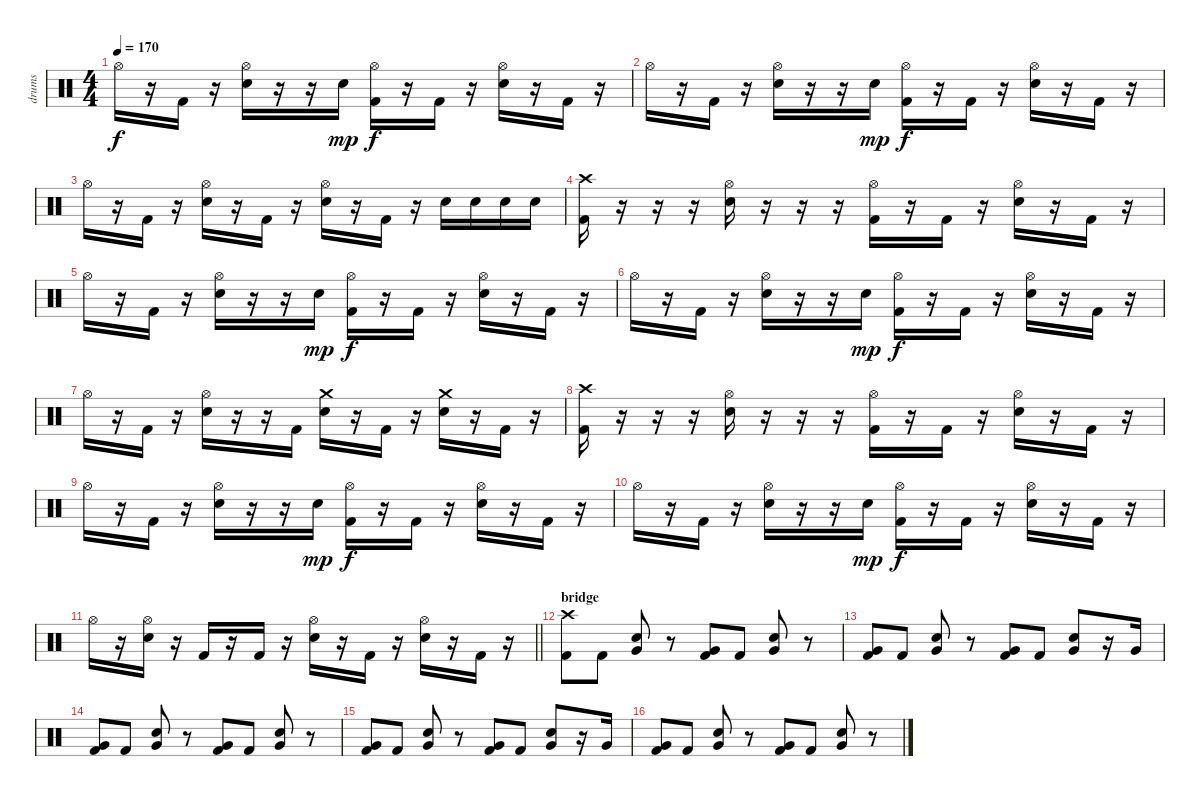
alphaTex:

\track ("drums" "drums") {instrument percussion}
\staff {score}
\articulation defaults
\ts (4 4)
\tempo 170
\clef neutral
\ks c "Hi-Hat (open)".16{dy f}
r.16 "Kick (hit) 2".16 r.16 ("Hi-Hat (open)" "Snare (hit) 2").16 r.16 r.16 "Snare (hit) 2".16{dy mp} ("Hi-Hat (open)" "Kick (hit) 2").16{dy f} r.16 "Kick (hit) 2".16 r.16 ("Hi-Hat (open)" "Snare (hit) 2").16 r.16 "Kick (hit) 2".16 r.16 |
"Hi-Hat (open)".16 r.16 "Kick (hit) 2".16 r.16 ("Hi-Hat (open)" "Snare (hit) 2").16 r.16 r.16 "Snare (hit) 2".16{dy mp} ("Hi-Hat (open)" "Kick (hit) 2").16{dy f} r.16 "Kick (hit) 2".16 r.16 ("Hi-Hat (open)" "Snare (hit) 2").16 r.16 "Kick (hit) 2".16 r.16 |
"Hi-Hat (open)".16 r.16 "Kick (hit) 2".16 r.16 ("Hi-Hat (open)" "Snare (hit) 2").16 r.16 "Kick (hit) 2".16 r.16 ("Hi-Hat (open)" "Snare (hit) 2").16 r.16 "Kick (hit) 2".16 r.16 "Snare (hit) 2".16 "Snare (hit) 2".16 "Snare (hit) 2".16 "Snare (hit) 2".16 |
("Crash high (hit)" "Kick (hit) 2").16 r.16 r.16 r.16 ("Hi-Hat (open)" "Snare (hit) 2").16 r.16 r.16 r.16 ("Hi-Hat (open)" "Kick (hit) 2").16 r.16 "Kick (hit) 2".16 r.16 ("Hi-Hat (open)" "Snare (hit) 2").16 r.16 "Kick (hit) 2".16 r.16 |
"Hi-Hat (open)".16 r.16 "Kick (hit) 2".16 r.16 ("Hi-Hat (open)" "Snare (hit) 2").16 r.16 r.16 "Snare (hit) 2".16{dy mp} ("Hi-Hat (open)" "Kick (hit) 2").16{dy f} r.16 "Kick (hit) 2".16 r.16 ("Hi-Hat (open)" "Snare (hit) 2").16 r.16 "Kick (hit) 2".16 r.16 |
"Hi-Hat (open)".16 r.16 "Kick (hit) 2".16 r.16 ("Hi-Hat (open)" "Snare (hit) 2").16 r.16 r.16 "Snare (hit) 2".16{dy mp} ("Hi-Hat (open)" "Kick (hit) 2").16{dy f} r.16 "Kick (hit) 2".16 r.16 ("Hi-Hat (open)" "Snare (hit) 2").16 r.16 "Kick (hit) 2".16 r.16 |
"Hi-Hat (open)".16 r.16 "Kick (hit) 2".16 r.16 ("Hi-Hat (open)" "Snare (hit) 2").16 r.16 r.16 "Kick (hit) 2".16 ("Crash medium (hit)" "Snare (hit) 2").16 r.16 "Kick (hit) 2".16 r.16 ("Crash medium (hit)" "Snare (hit) 2").16 r.16 "Kick (hit) 2".16 r.16 |
("Crash high (hit)" "Kick (hit) 2").16 r.16 r.16 r.16 ("Hi-Hat (open)" "Snare (hit) 2").16 r.16 r.16 r.16 ("Hi-Hat (open)" "Kick (hit) 2").16 r.16 "Kick (hit) 2".16 r.16 ("Hi-Hat (open)" "Snare (hit) 2").16 r.16 "Kick (hit) 2".16 r.16 |
"Hi-Hat (open)".16 r.16 "Kick (hit) 2".16 r.16 ("Hi-Hat (open)" "Snare (hit) 2").16 r.16 r.16 "Snare (hit) 2".16{dy mp} ("Hi-Hat (open)" "Kick (hit) 2").16{dy f} r.16 "Kick (hit) 2".16 r.16 ("Hi-Hat (open)" "Snare (hit) 2").16 r.16 "Kick (hit) 2".16 r.16 |
"Hi-Hat (open)".16 r.16 "Kick (hit) 2".16 r.16 ("Hi-Hat (open)" "Snare (hit) 2").16 r.16 r.16 "Snare (hit) 2".16{dy mp} ("Hi-Hat (open)" "Kick (hit) 2").16{dy f} r.16 "Kick (hit) 2".16 r.16 ("Hi-Hat (open)" "Snare (hit) 2").16 r.16 "Kick (hit) 2".16 r.16 |
\barLineRight lightlight "Hi-Hat (open)".16
r.16 ("Hi-Hat (open)" "Snare (hit) 2").16 r.16 "Kick (hit) 2".16 r.16 "Kick (hit) 2".16 r.16 ("Hi-Hat (open)" "Snare (hit) 2").16 r.16 "Kick (hit) 2".16 r.16 ("Hi-Hat (open)" "Snare (hit) 2").16 r.16 "Kick (hit) 2".16 r.16 |
\section ("" "bridge")
("Crash high (hit)" "Kick (hit) 2").8 "Kick (hit) 2".8 ("Snare (hit) 2" "Very Low Tom (hit)").8 r.8 ("Very Low Tom (hit)" "Kick (hit) 2").8 "Kick (hit) 2".8 ("Snare (hit) 2" "Very Low Tom (hit)").8 r.8 |
("Very Low Tom (hit)" "Kick (hit) 2").8 "Kick (hit) 2".8 ("Snare (hit) 2" "Very Low Tom (hit)").8 r.8 ("Very Low Tom (hit)" "Kick (hit) 2").8 "Kick (hit) 2".8 ("Snare (hit) 2" "Very Low Tom (hit)").8 r.16 "Very Low Tom (hit)".16 |
("Very Low Tom (hit)" "Kick (hit) 2").8 "Kick (hit) 2".8 ("Snare (hit) 2" "Very Low Tom (hit)").8 r.8 ("Very Low Tom (hit)" "Kick (hit) 2").8 "Kick (hit) 2".8 ("Snare (hit) 2" "Very Low Tom (hit)").8 r.8 |
("Very Low Tom (hit)" "Kick (hit) 2").8 "Kick (hit) 2".8 ("Snare (hit) 2" "Very Low Tom (hit)").8 r.8 ("Very Low Tom (hit)" "Kick (hit) 2").8 "Kick (hit) 2".8 ("Snare (hit) 2" "Very Low Tom (hit)").8 r.16 "Very Low Tom (hit)".16 |
("Very Low Tom (hit)" "Kick (hit) 2").8 "Kick (hit) 2".8 ("Snare (hit) 2" "Very Low Tom (hit)").8 r.8 ("Very Low Tom (hit)" "Kick (hit) 2").8 "Kick (hit) 2".8 ("Snare (hit) 2" "Very Low Tom (hit)").8 r.8
